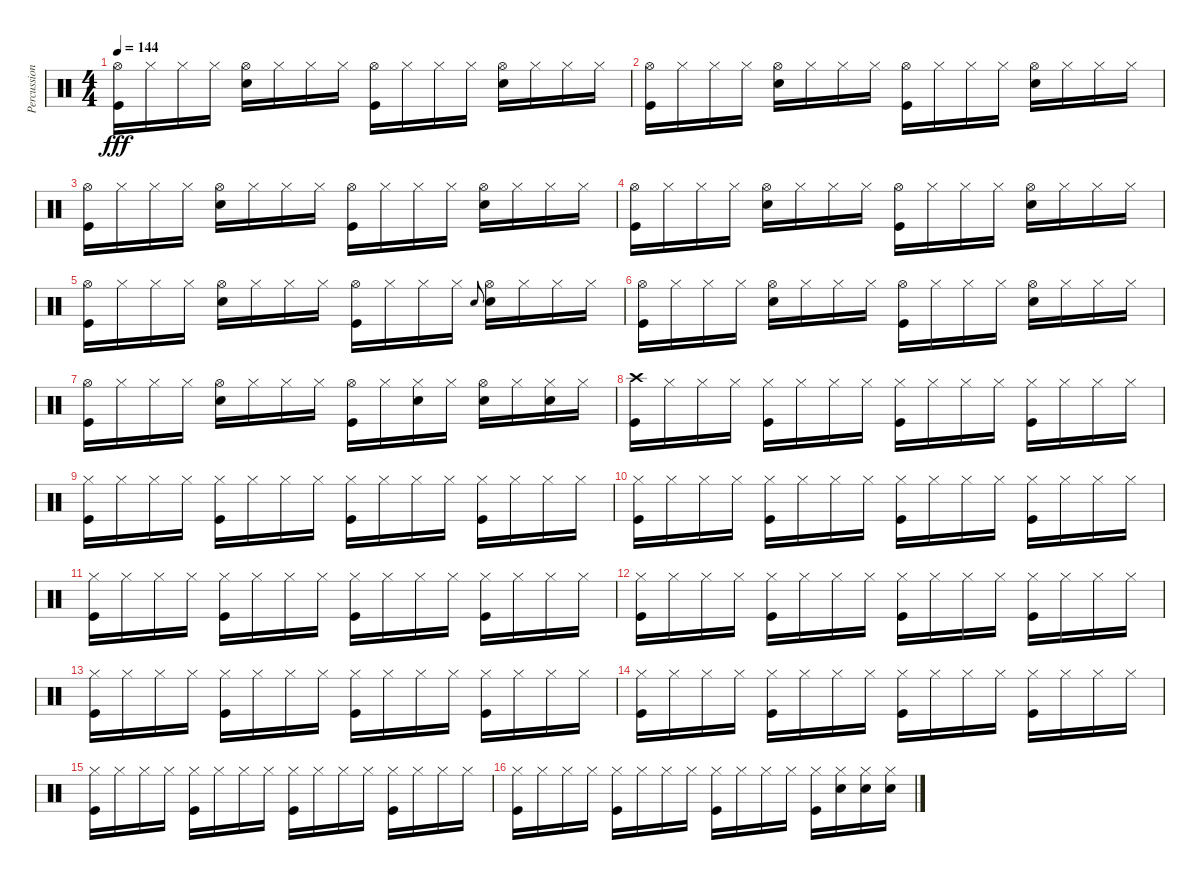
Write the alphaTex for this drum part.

\track ("Percussions" "Percussion") {instrument percussion}
\staff {score}
\articulation defaults
\ts (4 4)
\tempo 144
\clef neutral
\ks c
("Hi-Hat (open)" "Kick (hit)").16{dy fff} "Hi-Hat (closed)".16 "Hi-Hat (closed)".16 "Hi-Hat (closed)".16 ("Hi-Hat (open)" "Snare (hit) 2").16 "Hi-Hat (closed)".16 "Hi-Hat (closed)".16 "Hi-Hat (closed)".16 ("Hi-Hat (open)" "Kick (hit)").16 "Hi-Hat (closed)".16 "Hi-Hat (closed)".16 "Hi-Hat (closed)".16 ("Hi-Hat (open)" "Snare (hit) 2").16 "Hi-Hat (closed)".16 "Hi-Hat (closed)".16 "Hi-Hat (closed)".16 |
("Hi-Hat (open)" "Kick (hit)").16 "Hi-Hat (closed)".16 "Hi-Hat (closed)".16 "Hi-Hat (closed)".16 ("Hi-Hat (open)" "Snare (hit) 2").16 "Hi-Hat (closed)".16 "Hi-Hat (closed)".16 "Hi-Hat (closed)".16 ("Hi-Hat (open)" "Kick (hit)").16 "Hi-Hat (closed)".16 "Hi-Hat (closed)".16 "Hi-Hat (closed)".16 ("Hi-Hat (open)" "Snare (hit) 2").16 "Hi-Hat (closed)".16 "Hi-Hat (closed)".16 "Hi-Hat (closed)".16 |
("Hi-Hat (open)" "Kick (hit)").16 "Hi-Hat (closed)".16 "Hi-Hat (closed)".16 "Hi-Hat (closed)".16 ("Hi-Hat (open)" "Snare (hit) 2").16 "Hi-Hat (closed)".16 "Hi-Hat (closed)".16 "Hi-Hat (closed)".16 ("Hi-Hat (open)" "Kick (hit)").16 "Hi-Hat (closed)".16 "Hi-Hat (closed)".16 "Hi-Hat (closed)".16 ("Hi-Hat (open)" "Snare (hit) 2").16 "Hi-Hat (closed)".16 "Hi-Hat (closed)".16 "Hi-Hat (closed)".16 |
("Hi-Hat (open)" "Kick (hit)").16 "Hi-Hat (closed)".16 "Hi-Hat (closed)".16 "Hi-Hat (closed)".16 ("Hi-Hat (open)" "Snare (hit) 2").16 "Hi-Hat (closed)".16 "Hi-Hat (closed)".16 "Hi-Hat (closed)".16 ("Hi-Hat (open)" "Kick (hit)").16 "Hi-Hat (closed)".16 "Hi-Hat (closed)".16 "Hi-Hat (closed)".16 ("Hi-Hat (open)" "Snare (hit) 2").16 "Hi-Hat (closed)".16 "Hi-Hat (closed)".16 "Hi-Hat (closed)".16 |
("Hi-Hat (open)" "Kick (hit)").16 "Hi-Hat (closed)".16 "Hi-Hat (closed)".16 "Hi-Hat (closed)".16 ("Hi-Hat (open)" "Snare (hit) 2").16 "Hi-Hat (closed)".16 "Hi-Hat (closed)".16 "Hi-Hat (closed)".16 ("Hi-Hat (open)" "Kick (hit)").16 "Hi-Hat (closed)".16 "Hi-Hat (closed)".16 "Hi-Hat (closed)".16 "Snare (hit) 2".8{gr onbeat} ("Hi-Hat (open)" "Snare (hit) 2").16 "Hi-Hat (closed)".16 "Hi-Hat (closed)".16 "Hi-Hat (closed)".16 |
("Hi-Hat (open)" "Kick (hit)").16 "Hi-Hat (closed)".16 "Hi-Hat (closed)".16 "Hi-Hat (closed)".16 ("Hi-Hat (open)" "Snare (hit) 2").16 "Hi-Hat (closed)".16 "Hi-Hat (closed)".16 "Hi-Hat (closed)".16 ("Hi-Hat (open)" "Kick (hit)").16 "Hi-Hat (closed)".16 "Hi-Hat (closed)".16 "Hi-Hat (closed)".16 ("Hi-Hat (open)" "Snare (hit) 2").16 "Hi-Hat (closed)".16 "Hi-Hat (closed)".16 "Hi-Hat (closed)".16 |
("Hi-Hat (open)" "Kick (hit)").16 "Hi-Hat (closed)".16 "Hi-Hat (closed)".16 "Hi-Hat (closed)".16 ("Hi-Hat (open)" "Snare (hit) 2").16 "Hi-Hat (closed)".16 "Hi-Hat (closed)".16 "Hi-Hat (closed)".16 ("Hi-Hat (open)" "Kick (hit)").16 "Hi-Hat (closed)".16 ("Hi-Hat (closed)" "Snare (hit) 2").16 "Hi-Hat (closed)".16 ("Hi-Hat (open)" "Snare (hit) 2").16 "Hi-Hat (closed)".16 ("Hi-Hat (closed)" "Snare (hit) 2").16 "Hi-Hat (closed)".16 |
("Crash high (hit)" "Kick (hit)").16 "Hi-Hat (closed)".16 "Hi-Hat (closed)".16 "Hi-Hat (closed)".16 ("Hi-Hat (closed)" "Kick (hit)").16 "Hi-Hat (closed)".16 "Hi-Hat (closed)".16 "Hi-Hat (closed)".16 ("Hi-Hat (closed)" "Kick (hit)").16 "Hi-Hat (closed)".16 "Hi-Hat (closed)".16 "Hi-Hat (closed)".16 ("Hi-Hat (closed)" "Kick (hit)").16 "Hi-Hat (closed)".16 "Hi-Hat (closed)".16 "Hi-Hat (closed)".16 |
("Hi-Hat (closed)" "Kick (hit)").16 "Hi-Hat (closed)".16 "Hi-Hat (closed)".16 "Hi-Hat (closed)".16 ("Hi-Hat (closed)" "Kick (hit)").16 "Hi-Hat (closed)".16 "Hi-Hat (closed)".16 "Hi-Hat (closed)".16 ("Hi-Hat (closed)" "Kick (hit)").16 "Hi-Hat (closed)".16 "Hi-Hat (closed)".16 "Hi-Hat (closed)".16 ("Hi-Hat (closed)" "Kick (hit)").16 "Hi-Hat (closed)".16 "Hi-Hat (closed)".16 "Hi-Hat (closed)".16 |
("Hi-Hat (closed)" "Kick (hit)").16 "Hi-Hat (closed)".16 "Hi-Hat (closed)".16 "Hi-Hat (closed)".16 ("Hi-Hat (closed)" "Kick (hit)").16 "Hi-Hat (closed)".16 "Hi-Hat (closed)".16 "Hi-Hat (closed)".16 ("Hi-Hat (closed)" "Kick (hit)").16 "Hi-Hat (closed)".16 "Hi-Hat (closed)".16 "Hi-Hat (closed)".16 ("Hi-Hat (closed)" "Kick (hit)").16 "Hi-Hat (closed)".16 "Hi-Hat (closed)".16 "Hi-Hat (closed)".16 |
("Hi-Hat (closed)" "Kick (hit)").16 "Hi-Hat (closed)".16 "Hi-Hat (closed)".16 "Hi-Hat (closed)".16 ("Hi-Hat (closed)" "Kick (hit)").16 "Hi-Hat (closed)".16 "Hi-Hat (closed)".16 "Hi-Hat (closed)".16 ("Hi-Hat (closed)" "Kick (hit)").16 "Hi-Hat (closed)".16 "Hi-Hat (closed)".16 "Hi-Hat (closed)".16 ("Hi-Hat (closed)" "Kick (hit)").16 "Hi-Hat (closed)".16 "Hi-Hat (closed)".16 "Hi-Hat (closed)".16 |
("Hi-Hat (closed)" "Kick (hit)").16 "Hi-Hat (closed)".16 "Hi-Hat (closed)".16 "Hi-Hat (closed)".16 ("Hi-Hat (closed)" "Kick (hit)").16 "Hi-Hat (closed)".16 "Hi-Hat (closed)".16 "Hi-Hat (closed)".16 ("Hi-Hat (closed)" "Kick (hit)").16 "Hi-Hat (closed)".16 "Hi-Hat (closed)".16 "Hi-Hat (closed)".16 ("Hi-Hat (closed)" "Kick (hit)").16 "Hi-Hat (closed)".16 "Hi-Hat (closed)".16 "Hi-Hat (closed)".16 |
("Hi-Hat (closed)" "Kick (hit)").16 "Hi-Hat (closed)".16 "Hi-Hat (closed)".16 "Hi-Hat (closed)".16 ("Hi-Hat (closed)" "Kick (hit)").16 "Hi-Hat (closed)".16 "Hi-Hat (closed)".16 "Hi-Hat (closed)".16 ("Hi-Hat (closed)" "Kick (hit)").16 "Hi-Hat (closed)".16 "Hi-Hat (closed)".16 "Hi-Hat (closed)".16 ("Hi-Hat (closed)" "Kick (hit)").16 "Hi-Hat (closed)".16 "Hi-Hat (closed)".16 "Hi-Hat (closed)".16 |
("Hi-Hat (closed)" "Kick (hit)").16 "Hi-Hat (closed)".16 "Hi-Hat (closed)".16 "Hi-Hat (closed)".16 ("Hi-Hat (closed)" "Kick (hit)").16 "Hi-Hat (closed)".16 "Hi-Hat (closed)".16 "Hi-Hat (closed)".16 ("Hi-Hat (closed)" "Kick (hit)").16 "Hi-Hat (closed)".16 "Hi-Hat (closed)".16 "Hi-Hat (closed)".16 ("Hi-Hat (closed)" "Kick (hit)").16 "Hi-Hat (closed)".16 "Hi-Hat (closed)".16 "Hi-Hat (closed)".16 |
("Hi-Hat (closed)" "Kick (hit)").16 "Hi-Hat (closed)".16 "Hi-Hat (closed)".16 "Hi-Hat (closed)".16 ("Hi-Hat (closed)" "Kick (hit)").16 "Hi-Hat (closed)".16 "Hi-Hat (closed)".16 "Hi-Hat (closed)".16 ("Hi-Hat (closed)" "Kick (hit)").16 "Hi-Hat (closed)".16 "Hi-Hat (closed)".16 "Hi-Hat (closed)".16 ("Hi-Hat (closed)" "Kick (hit)").16 "Hi-Hat (closed)".16 "Hi-Hat (closed)".16 "Hi-Hat (closed)".16 |
("Hi-Hat (closed)" "Kick (hit)").16 "Hi-Hat (closed)".16 "Hi-Hat (closed)".16 "Hi-Hat (closed)".16 ("Hi-Hat (closed)" "Kick (hit)").16 "Hi-Hat (closed)".16 "Hi-Hat (closed)".16 "Hi-Hat (closed)".16 ("Hi-Hat (closed)" "Kick (hit)").16 "Hi-Hat (closed)".16 "Hi-Hat (closed)".16 "Hi-Hat (closed)".16 ("Hi-Hat (closed)" "Kick (hit)").16 ("Hi-Hat (closed)" "Snare (hit) 2").16 ("Hi-Hat (closed)" "Snare (hit) 2").16 ("Hi-Hat (closed)" "Snare (hit) 2").16
